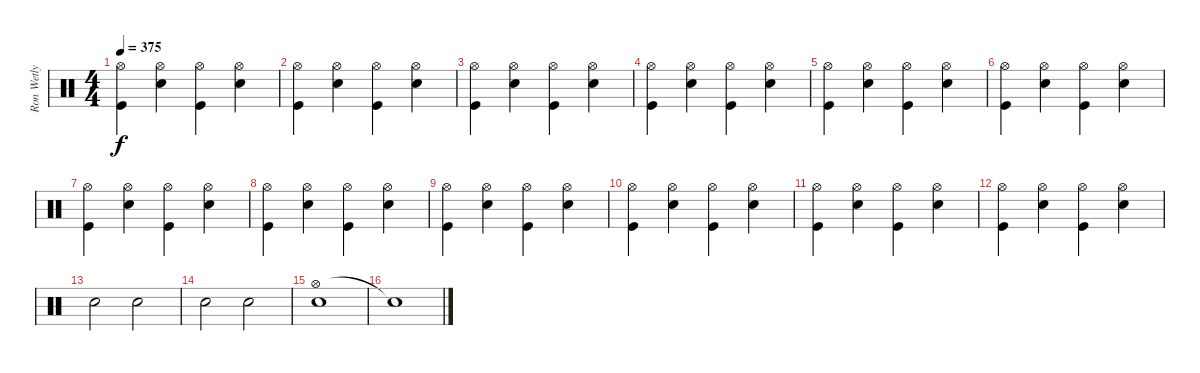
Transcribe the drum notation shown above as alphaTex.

\track ("Ron Wetly (Drums)" "Ron Wetly ") {instrument percussion}
\staff {score}
\articulation defaults
\ts (4 4)
\tempo 375
\clef neutral
\ks c
("Hi-Hat (open)" "Kick (hit)").4{dy f} ("Hi-Hat (open)" "Snare (hit) 2").4 ("Hi-Hat (open)" "Kick (hit)").4 ("Hi-Hat (open)" "Snare (hit) 2").4 |
("Hi-Hat (open)" "Kick (hit)").4 ("Hi-Hat (open)" "Snare (hit) 2").4 ("Hi-Hat (open)" "Kick (hit)").4 ("Hi-Hat (open)" "Snare (hit) 2").4 |
("Hi-Hat (open)" "Kick (hit)").4 ("Hi-Hat (open)" "Snare (hit) 2").4 ("Hi-Hat (open)" "Kick (hit)").4 ("Hi-Hat (open)" "Snare (hit) 2").4 |
("Hi-Hat (open)" "Kick (hit)").4 ("Hi-Hat (open)" "Snare (hit) 2").4 ("Hi-Hat (open)" "Kick (hit)").4 ("Hi-Hat (open)" "Snare (hit) 2").4 |
("Hi-Hat (open)" "Kick (hit)").4 ("Hi-Hat (open)" "Snare (hit) 2").4 ("Hi-Hat (open)" "Kick (hit)").4 ("Hi-Hat (open)" "Snare (hit) 2").4 |
("Hi-Hat (open)" "Kick (hit)").4 ("Hi-Hat (open)" "Snare (hit) 2").4 ("Hi-Hat (open)" "Kick (hit)").4 ("Hi-Hat (open)" "Snare (hit) 2").4 |
("Hi-Hat (open)" "Kick (hit)").4 ("Hi-Hat (open)" "Snare (hit) 2").4 ("Hi-Hat (open)" "Kick (hit)").4 ("Hi-Hat (open)" "Snare (hit) 2").4 |
("Hi-Hat (open)" "Kick (hit)").4 ("Hi-Hat (open)" "Snare (hit) 2").4 ("Hi-Hat (open)" "Kick (hit)").4 ("Hi-Hat (open)" "Snare (hit) 2").4 |
("Hi-Hat (open)" "Kick (hit)").4 ("Hi-Hat (open)" "Snare (hit) 2").4 ("Hi-Hat (open)" "Kick (hit)").4 ("Hi-Hat (open)" "Snare (hit) 2").4 |
("Hi-Hat (open)" "Kick (hit)").4 ("Hi-Hat (open)" "Snare (hit) 2").4 ("Hi-Hat (open)" "Kick (hit)").4 ("Hi-Hat (open)" "Snare (hit) 2").4 |
("Hi-Hat (open)" "Kick (hit)").4 ("Hi-Hat (open)" "Snare (hit) 2").4 ("Hi-Hat (open)" "Kick (hit)").4 ("Hi-Hat (open)" "Snare (hit) 2").4 |
("Hi-Hat (open)" "Kick (hit)").4 ("Hi-Hat (open)" "Snare (hit) 2").4 ("Hi-Hat (open)" "Kick (hit)").4 ("Hi-Hat (open)" "Snare (hit) 2").4 |
"Snare (hit) 2".2 "Snare (hit) 2".2 |
"Snare (hit) 2".2 "Snare (hit) 2".2 |
("Hi-Hat (open)" "Snare (hit) 2").1 |
"Snare (hit)"{t}.1
